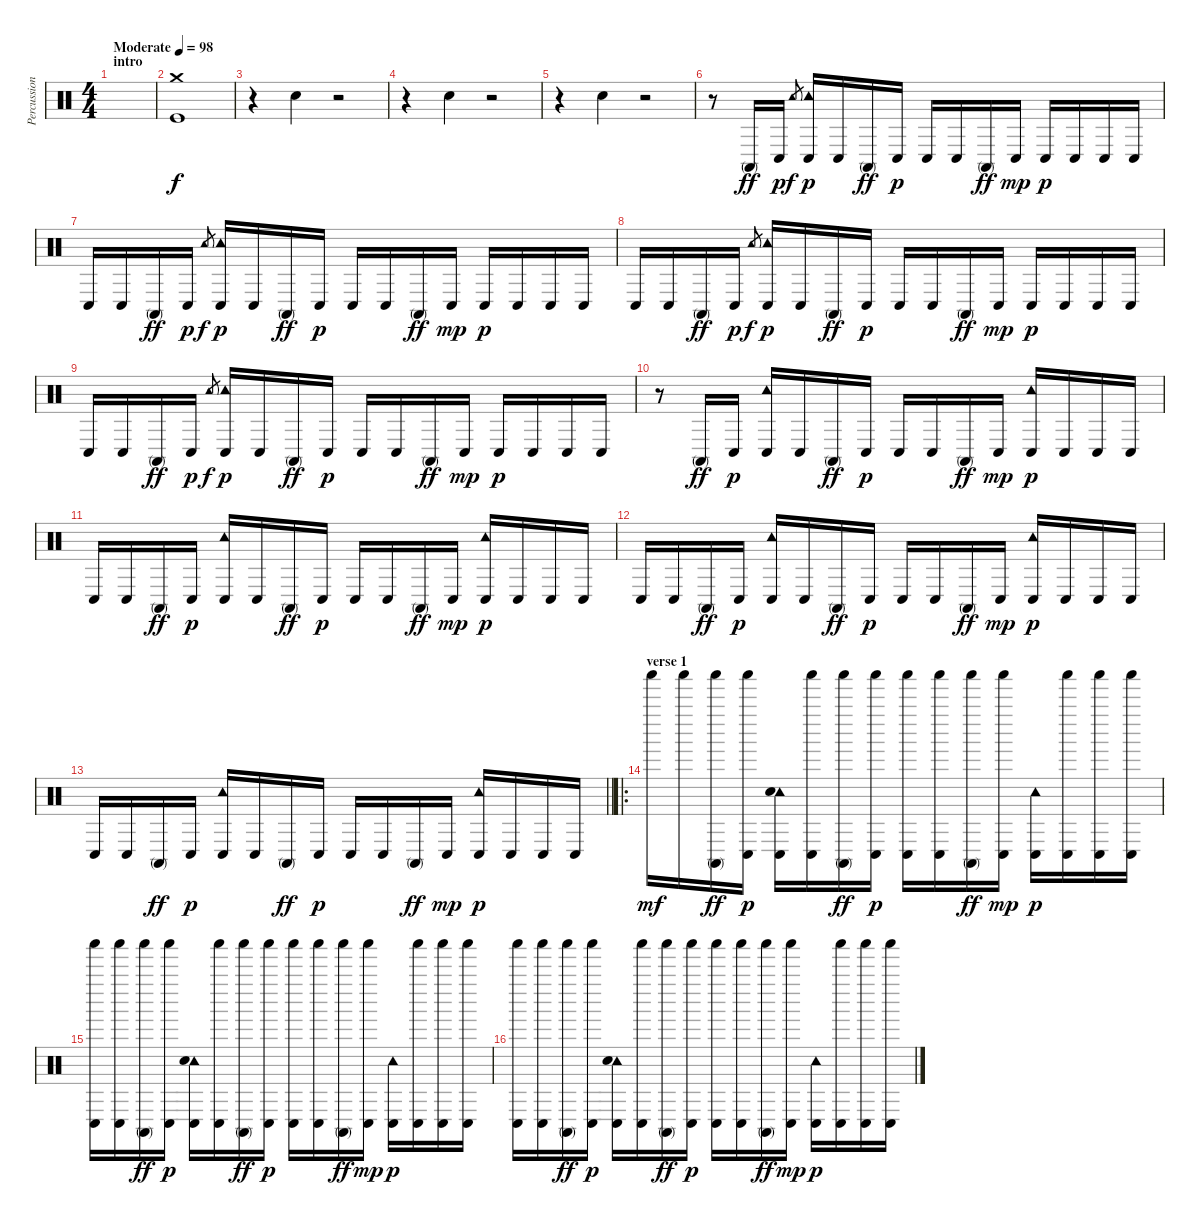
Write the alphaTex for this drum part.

\track ("Percussions" "Percussion") {instrument percussion}
\staff {score}
\articulation defaults
\ts (4 4)
\section ("" "intro ")
\tempo (98 "Moderate")
\clef neutral
\ks c
|
("Crash medium (hit)" "Kick (hit)").1 |
r.4 "Hand Clap (hit)".4{dy f} r.2 |
r.4 "Hand Clap (hit)".4 r.2 |
r.4 "Hand Clap (hit)".4 r.2 |
r.8 "Conga high (mute)".16{dy ff} "Conga low (hit)".16{dy p} "Tambourine (hit)"{x}.8{gr dy f} ("Tambourine (hit)" "Conga low (hit)").16{dy p} "Conga low (hit)".16 "Conga high (mute)".16{dy ff} "Conga low (hit)".16{dy p} "Conga low (hit)".16 "Conga low (hit)".16 "Conga high (mute)".16{dy ff} "Conga low (hit)".16{dy mp} "Conga low (hit)".16{dy p} "Conga low (hit)".16 "Conga low (hit)".16 "Conga low (hit)".16 |
"Conga low (hit)".16 "Conga low (hit)".16 "Conga high (mute)".16{dy ff} "Conga low (hit)".16{dy p} "Tambourine (hit)"{x}.8{gr dy f} ("Tambourine (hit)" "Conga low (hit)").16{dy p} "Conga low (hit)".16 "Conga high (mute)".16{dy ff} "Conga low (hit)".16{dy p} "Conga low (hit)".16 "Conga low (hit)".16 "Conga high (mute)".16{dy ff} "Conga low (hit)".16{dy mp} "Conga low (hit)".16{dy p} "Conga low (hit)".16 "Conga low (hit)".16 "Conga low (hit)".16 |
"Conga low (hit)".16 "Conga low (hit)".16 "Conga high (mute)".16{dy ff} "Conga low (hit)".16{dy p} "Tambourine (hit)"{x}.8{gr dy f} ("Tambourine (hit)" "Conga low (hit)").16{dy p} "Conga low (hit)".16 "Conga high (mute)".16{dy ff} "Conga low (hit)".16{dy p} "Conga low (hit)".16 "Conga low (hit)".16 "Conga high (mute)".16{dy ff} "Conga low (hit)".16{dy mp} "Conga low (hit)".16{dy p} "Conga low (hit)".16 "Conga low (hit)".16 "Conga low (hit)".16 |
"Conga low (hit)".16 "Conga low (hit)".16 "Conga high (mute)".16{dy ff} "Conga low (hit)".16{dy p} "Tambourine (hit)"{x}.8{gr dy f} ("Tambourine (hit)" "Conga low (hit)").16{dy p} "Conga low (hit)".16 "Conga high (mute)".16{dy ff} "Conga low (hit)".16{dy p} "Conga low (hit)".16 "Conga low (hit)".16 "Conga high (mute)".16{dy ff} "Conga low (hit)".16{dy mp} "Conga low (hit)".16{dy p} "Conga low (hit)".16 "Conga low (hit)".16 "Conga low (hit)".16 |
r.8 "Conga high (mute)".16{dy ff} "Conga low (hit)".16{dy p} ("Tambourine (hit)" "Conga low (hit)").16 "Conga low (hit)".16 "Conga high (mute)".16{dy ff} "Conga low (hit)".16{dy p} "Conga low (hit)".16 "Conga low (hit)".16 "Conga high (mute)".16{dy ff} "Conga low (hit)".16{dy mp} ("Tambourine (hit)" "Conga low (hit)").16{dy p} "Conga low (hit)".16 "Conga low (hit)".16 "Conga low (hit)".16 |
"Conga low (hit)".16 "Conga low (hit)".16 "Conga high (mute)".16{dy ff} "Conga low (hit)".16{dy p} ("Tambourine (hit)" "Conga low (hit)").16 "Conga low (hit)".16 "Conga high (mute)".16{dy ff} "Conga low (hit)".16{dy p} "Conga low (hit)".16 "Conga low (hit)".16 "Conga high (mute)".16{dy ff} "Conga low (hit)".16{dy mp} ("Tambourine (hit)" "Conga low (hit)").16{dy p} "Conga low (hit)".16 "Conga low (hit)".16 "Conga low (hit)".16 |
"Conga low (hit)".16 "Conga low (hit)".16 "Conga high (mute)".16{dy ff} "Conga low (hit)".16{dy p} ("Tambourine (hit)" "Conga low (hit)").16 "Conga low (hit)".16 "Conga high (mute)".16{dy ff} "Conga low (hit)".16{dy p} "Conga low (hit)".16 "Conga low (hit)".16 "Conga high (mute)".16{dy ff} "Conga low (hit)".16{dy mp} ("Tambourine (hit)" "Conga low (hit)").16{dy p} "Conga low (hit)".16 "Conga low (hit)".16 "Conga low (hit)".16 |
\barLineRight lightlight "Conga low (hit)".16 "Conga low (hit)".16 "Conga high (mute)".16{dy ff} "Conga low (hit)".16{dy p}
("Tambourine (hit)" "Conga low (hit)").16 "Conga low (hit)".16 "Conga high (mute)".16{dy ff} "Conga low (hit)".16{dy p} "Conga low (hit)".16 "Conga low (hit)".16 "Conga high (mute)".16{dy ff} "Conga low (hit)".16{dy mp} ("Tambourine (hit)" "Conga low (hit)").16{dy p} "Conga low (hit)".16 "Conga low (hit)".16 "Conga low (hit)".16 |
\ro
\section ("" "verse 1")
"Shaker (hit)".16{dy mf} "Shaker (hit)".16 ("Shaker (hit)" "Conga high (mute)").16{dy ff} ("Shaker (hit)" "Conga low (hit)").16{dy p} ("Tambourine (hit)" "Hand Clap (hit)" "Conga low (hit)").16 ("Shaker (hit)" "Conga low (hit)").16 ("Shaker (hit)" "Conga high (mute)").16{dy ff} ("Shaker (hit)" "Conga low (hit)").16{dy p} ("Shaker (hit)" "Conga low (hit)").16 ("Shaker (hit)" "Conga low (hit)").16 ("Shaker (hit)" "Conga high (mute)").16{dy ff} ("Shaker (hit)" "Conga low (hit)").16{dy mp} ("Tambourine (hit)" "Conga low (hit)").16{dy p} ("Shaker (hit)" "Conga low (hit)").16 ("Shaker (hit)" "Conga low (hit)").16 ("Shaker (hit)" "Conga low (hit)").16 |
("Shaker (hit)" "Conga low (hit)").16 ("Shaker (hit)" "Conga low (hit)").16 ("Shaker (hit)" "Conga high (mute)").16{dy ff} ("Shaker (hit)" "Conga low (hit)").16{dy p} ("Tambourine (hit)" "Hand Clap (hit)" "Conga low (hit)").16 ("Shaker (hit)" "Conga low (hit)").16 ("Shaker (hit)" "Conga high (mute)").16{dy ff} ("Shaker (hit)" "Conga low (hit)").16{dy p} ("Shaker (hit)" "Conga low (hit)").16 ("Shaker (hit)" "Conga low (hit)").16 ("Shaker (hit)" "Conga high (mute)").16{dy ff} ("Shaker (hit)" "Conga low (hit)").16{dy mp} ("Tambourine (hit)" "Conga low (hit)").16{dy p} ("Shaker (hit)" "Conga low (hit)").16 ("Shaker (hit)" "Conga low (hit)").16 ("Shaker (hit)" "Conga low (hit)").16 |
("Shaker (hit)" "Conga low (hit)").16 ("Shaker (hit)" "Conga low (hit)").16 ("Shaker (hit)" "Conga high (mute)").16{dy ff} ("Shaker (hit)" "Conga low (hit)").16{dy p} ("Tambourine (hit)" "Hand Clap (hit)" "Conga low (hit)").16 ("Shaker (hit)" "Conga low (hit)").16 ("Shaker (hit)" "Conga high (mute)").16{dy ff} ("Shaker (hit)" "Conga low (hit)").16{dy p} ("Shaker (hit)" "Conga low (hit)").16 ("Shaker (hit)" "Conga low (hit)").16 ("Shaker (hit)" "Conga high (mute)").16{dy ff} ("Shaker (hit)" "Conga low (hit)").16{dy mp} ("Tambourine (hit)" "Conga low (hit)").16{dy p} ("Shaker (hit)" "Conga low (hit)").16 ("Shaker (hit)" "Conga low (hit)").16 ("Shaker (hit)" "Conga low (hit)").16
